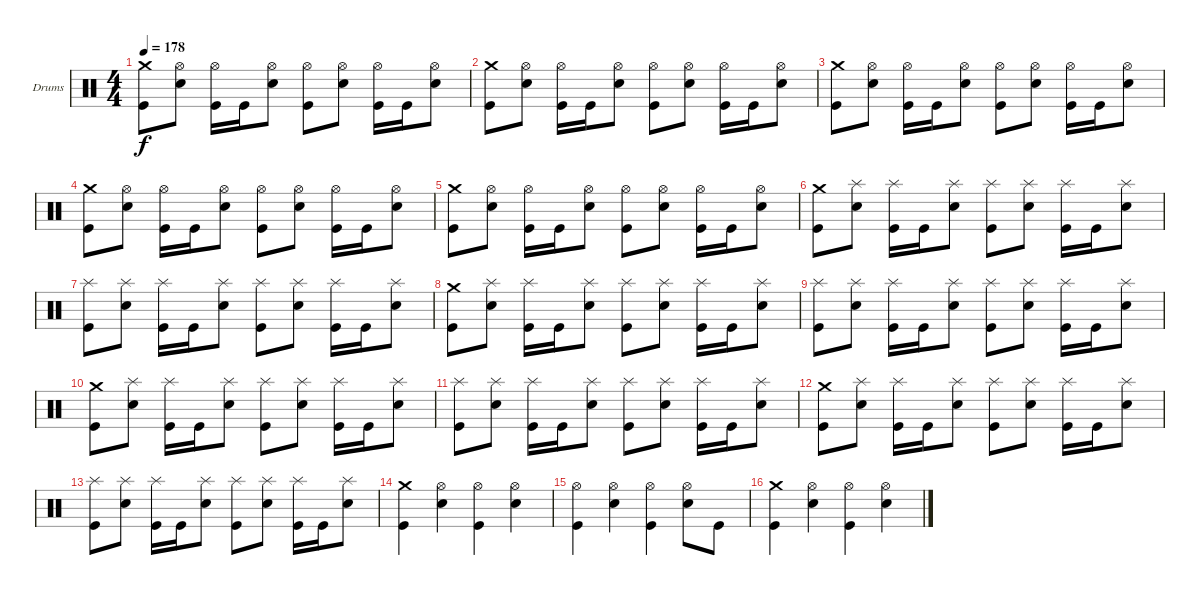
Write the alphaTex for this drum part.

\bracketExtendMode groupsimilarinstruments
\firstSystemTrackNameOrientation horizontal
\otherSystemsTrackNameOrientation horizontal
\track ("Drumkit" "Drums") {instrument percussion}
\staff {score}
\articulation defaults
\ts (4 4)
\tempo 178
\clef neutral
\ks c
("Crash medium (hit)" "Kick (hit)").8{dy f} ("Hi-Hat (open)" "Snare (hit) 2").8 ("Hi-Hat (open)" "Kick (hit)").16 "Kick (hit)".16 ("Hi-Hat (open)" "Snare (hit) 2").8 ("Hi-Hat (open)" "Kick (hit)").8 ("Hi-Hat (open)" "Snare (hit) 2").8 ("Hi-Hat (open)" "Kick (hit)").16 "Kick (hit)".16 ("Hi-Hat (open)" "Snare (hit) 2").8 |
("Crash medium (hit)" "Kick (hit)").8 ("Hi-Hat (open)" "Snare (hit) 2").8 ("Hi-Hat (open)" "Kick (hit)").16 "Kick (hit)".16 ("Hi-Hat (open)" "Snare (hit) 2").8 ("Hi-Hat (open)" "Kick (hit)").8 ("Hi-Hat (open)" "Snare (hit) 2").8 ("Hi-Hat (open)" "Kick (hit)").16 "Kick (hit)".16 ("Hi-Hat (open)" "Snare (hit) 2").8 |
("Crash medium (hit)" "Kick (hit)").8 ("Hi-Hat (open)" "Snare (hit) 2").8 ("Hi-Hat (open)" "Kick (hit)").16 "Kick (hit)".16 ("Hi-Hat (open)" "Snare (hit) 2").8 ("Hi-Hat (open)" "Kick (hit)").8 ("Hi-Hat (open)" "Snare (hit) 2").8 ("Hi-Hat (open)" "Kick (hit)").16 "Kick (hit)".16 ("Hi-Hat (open)" "Snare (hit) 2").8 |
("Crash medium (hit)" "Kick (hit)").8 ("Hi-Hat (open)" "Snare (hit) 2").8 ("Hi-Hat (open)" "Kick (hit)").16 "Kick (hit)".16 ("Hi-Hat (open)" "Snare (hit) 2").8 ("Hi-Hat (open)" "Kick (hit)").8 ("Hi-Hat (open)" "Snare (hit) 2").8 ("Hi-Hat (open)" "Kick (hit)").16 "Kick (hit)".16 ("Hi-Hat (open)" "Snare (hit) 2").8 |
("Crash medium (hit)" "Kick (hit)").8 ("Hi-Hat (open)" "Snare (hit) 2").8 ("Hi-Hat (open)" "Kick (hit)").16 "Kick (hit)".16 ("Hi-Hat (open)" "Snare (hit) 2").8 ("Hi-Hat (open)" "Kick (hit)").8 ("Hi-Hat (open)" "Snare (hit) 2").8 ("Hi-Hat (open)" "Kick (hit)").16 "Kick (hit)".16 ("Hi-Hat (open)" "Snare (hit) 2").8 |
("Crash medium (hit)" "Kick (hit)").8 ("Splash (hit)" "Snare (hit) 2").8 ("Splash (hit)" "Kick (hit)").16 "Kick (hit)".16 ("Splash (hit)" "Snare (hit) 2").8 ("Splash (hit)" "Kick (hit)").8 ("Splash (hit)" "Snare (hit) 2").8 ("Splash (hit)" "Kick (hit)").16 "Kick (hit)".16 ("Splash (hit)" "Snare (hit) 2").8 |
("Splash (hit)" "Kick (hit)").8 ("Splash (hit)" "Snare (hit) 2").8 ("Splash (hit)" "Kick (hit)").16 "Kick (hit)".16 ("Splash (hit)" "Snare (hit) 2").8 ("Splash (hit)" "Kick (hit)").8 ("Splash (hit)" "Snare (hit) 2").8 ("Splash (hit)" "Kick (hit)").16 "Kick (hit)".16 ("Splash (hit)" "Snare (hit) 2").8 |
("Crash medium (hit)" "Kick (hit)").8 ("Splash (hit)" "Snare (hit) 2").8 ("Splash (hit)" "Kick (hit)").16 "Kick (hit)".16 ("Splash (hit)" "Snare (hit) 2").8 ("Splash (hit)" "Kick (hit)").8 ("Splash (hit)" "Snare (hit) 2").8 ("Splash (hit)" "Kick (hit)").16 "Kick (hit)".16 ("Splash (hit)" "Snare (hit) 2").8 |
("Splash (hit)" "Kick (hit)").8 ("Splash (hit)" "Snare (hit) 2").8 ("Splash (hit)" "Kick (hit)").16 "Kick (hit)".16 ("Splash (hit)" "Snare (hit) 2").8 ("Splash (hit)" "Kick (hit)").8 ("Splash (hit)" "Snare (hit) 2").8 ("Splash (hit)" "Kick (hit)").16 "Kick (hit)".16 ("Splash (hit)" "Snare (hit) 2").8 |
("Crash medium (hit)" "Kick (hit)").8 ("Splash (hit)" "Snare (hit) 2").8 ("Splash (hit)" "Kick (hit)").16 "Kick (hit)".16 ("Splash (hit)" "Snare (hit) 2").8 ("Splash (hit)" "Kick (hit)").8 ("Splash (hit)" "Snare (hit) 2").8 ("Splash (hit)" "Kick (hit)").16 "Kick (hit)".16 ("Splash (hit)" "Snare (hit) 2").8 |
("Splash (hit)" "Kick (hit)").8 ("Splash (hit)" "Snare (hit) 2").8 ("Splash (hit)" "Kick (hit)").16 "Kick (hit)".16 ("Splash (hit)" "Snare (hit) 2").8 ("Splash (hit)" "Kick (hit)").8 ("Splash (hit)" "Snare (hit) 2").8 ("Splash (hit)" "Kick (hit)").16 "Kick (hit)".16 ("Splash (hit)" "Snare (hit) 2").8 |
("Crash medium (hit)" "Kick (hit)").8 ("Splash (hit)" "Snare (hit) 2").8 ("Splash (hit)" "Kick (hit)").16 "Kick (hit)".16 ("Splash (hit)" "Snare (hit) 2").8 ("Splash (hit)" "Kick (hit)").8 ("Splash (hit)" "Snare (hit) 2").8 ("Splash (hit)" "Kick (hit)").16 "Kick (hit)".16 ("Splash (hit)" "Snare (hit) 2").8 |
("Splash (hit)" "Kick (hit)").8 ("Splash (hit)" "Snare (hit) 2").8 ("Splash (hit)" "Kick (hit)").16 "Kick (hit)".16 ("Splash (hit)" "Snare (hit) 2").8 ("Splash (hit)" "Kick (hit)").8 ("Splash (hit)" "Snare (hit) 2").8 ("Splash (hit)" "Kick (hit)").16 "Kick (hit)".16 ("Splash (hit)" "Snare (hit) 2").8 |
("Crash medium (hit)" "Kick (hit)").4 ("Hi-Hat (open)" "Snare (hit) 2").4 ("Hi-Hat (open)" "Kick (hit)").4 ("Hi-Hat (open)" "Snare (hit) 2").4 |
("Hi-Hat (open)" "Kick (hit)").4 ("Hi-Hat (open)" "Snare (hit) 2").4 ("Hi-Hat (open)" "Kick (hit)").4 ("Hi-Hat (open)" "Snare (hit) 2").8 "Kick (hit)".8 |
("Crash medium (hit)" "Kick (hit)").4 ("Hi-Hat (open)" "Snare (hit) 2").4 ("Hi-Hat (open)" "Kick (hit)").4 ("Hi-Hat (open)" "Snare (hit) 2").4
